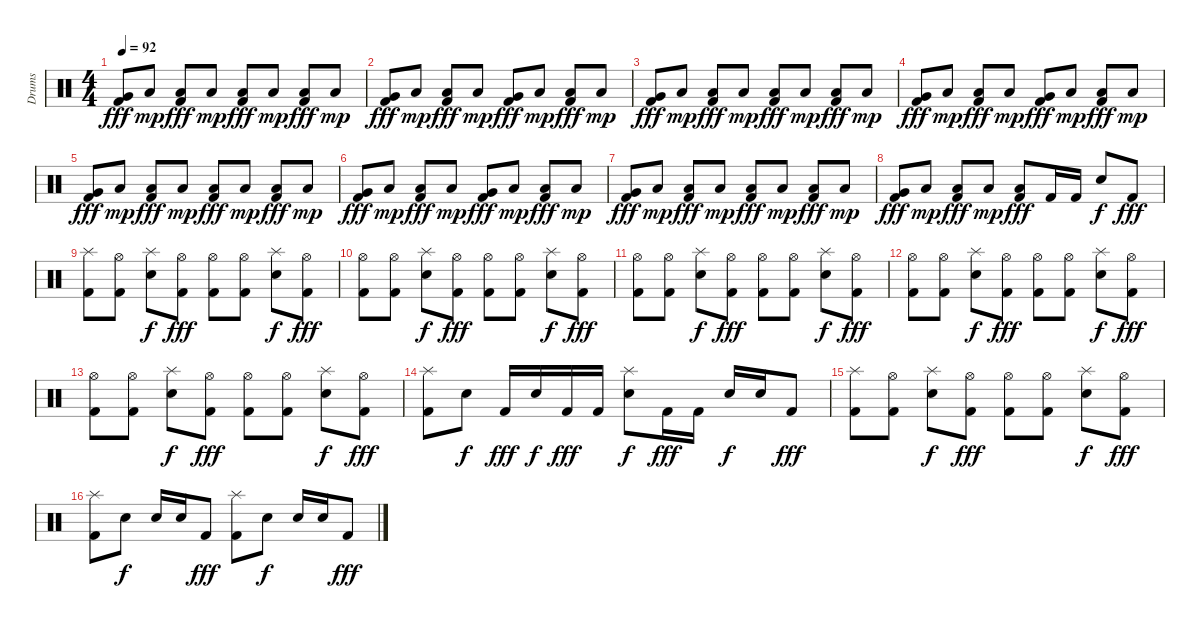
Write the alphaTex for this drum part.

\track ("Drums" "Drums") {instrument percussion}
\staff {score}
\articulation defaults
\ts (4 4)
\tempo 92
\clef neutral
\ks c
("Very Low Tom (hit)" "Kick (hit) 2").8{dy fff} "Low Floor Tom (hit)".8{dy mp} ("Low Floor Tom (hit)" "Kick (hit) 2").8{dy fff} "Low Floor Tom (hit)".8{dy mp} ("Low Floor Tom (hit)" "Kick (hit) 2").8{dy fff} "Low Floor Tom (hit)".8{dy mp} ("Low Floor Tom (hit)" "Kick (hit) 2").8{dy fff} "Low Floor Tom (hit)".8{dy mp} |
("Very Low Tom (hit)" "Kick (hit) 2").8{dy fff} "Low Floor Tom (hit)".8{dy mp} ("Low Floor Tom (hit)" "Kick (hit) 2").8{dy fff} "Low Floor Tom (hit)".8{dy mp} ("Very Low Tom (hit)" "Kick (hit) 2").8{dy fff} "Low Floor Tom (hit)".8{dy mp} ("Low Floor Tom (hit)" "Kick (hit) 2").8{dy fff} "Low Floor Tom (hit)".8{dy mp} |
("Very Low Tom (hit)" "Kick (hit) 2").8{dy fff} "Low Floor Tom (hit)".8{dy mp} ("Low Floor Tom (hit)" "Kick (hit) 2").8{dy fff} "Low Floor Tom (hit)".8{dy mp} ("Low Floor Tom (hit)" "Kick (hit) 2").8{dy fff} "Low Floor Tom (hit)".8{dy mp} ("Low Floor Tom (hit)" "Kick (hit) 2").8{dy fff} "Low Floor Tom (hit)".8{dy mp} |
("Very Low Tom (hit)" "Kick (hit) 2").8{dy fff} "Low Floor Tom (hit)".8{dy mp} ("Low Floor Tom (hit)" "Kick (hit) 2").8{dy fff} "Low Floor Tom (hit)".8{dy mp} ("Very Low Tom (hit)" "Kick (hit) 2").8{dy fff} "Low Floor Tom (hit)".8{dy mp} ("Low Floor Tom (hit)" "Kick (hit) 2").8{dy fff} "Low Floor Tom (hit)".8{dy mp} |
("Very Low Tom (hit)" "Kick (hit) 2").8{dy fff} "Low Floor Tom (hit)".8{dy mp} ("Low Floor Tom (hit)" "Kick (hit) 2").8{dy fff} "Low Floor Tom (hit)".8{dy mp} ("Low Floor Tom (hit)" "Kick (hit) 2").8{dy fff} "Low Floor Tom (hit)".8{dy mp} ("Low Floor Tom (hit)" "Kick (hit) 2").8{dy fff} "Low Floor Tom (hit)".8{dy mp} |
("Very Low Tom (hit)" "Kick (hit) 2").8{dy fff} "Low Floor Tom (hit)".8{dy mp} ("Low Floor Tom (hit)" "Kick (hit) 2").8{dy fff} "Low Floor Tom (hit)".8{dy mp} ("Very Low Tom (hit)" "Kick (hit) 2").8{dy fff} "Low Floor Tom (hit)".8{dy mp} ("Low Floor Tom (hit)" "Kick (hit) 2").8{dy fff} "Low Floor Tom (hit)".8{dy mp} |
("Very Low Tom (hit)" "Kick (hit) 2").8{dy fff} "Low Floor Tom (hit)".8{dy mp} ("Low Floor Tom (hit)" "Kick (hit) 2").8{dy fff} "Low Floor Tom (hit)".8{dy mp} ("Low Floor Tom (hit)" "Kick (hit) 2").8{dy fff} "Low Floor Tom (hit)".8{dy mp} ("Low Floor Tom (hit)" "Kick (hit) 2").8{dy fff} "Low Floor Tom (hit)".8{dy mp} |
("Very Low Tom (hit)" "Kick (hit) 2").8{dy fff} "Low Floor Tom (hit)".8{dy mp} ("Low Floor Tom (hit)" "Kick (hit) 2").8{dy fff} "Low Floor Tom (hit)".8{dy mp} ("Low Floor Tom (hit)" "Kick (hit) 2").8{dy fff} "Kick (hit) 2".16 "Kick (hit) 2".16 "Snare (hit) 2".8{dy f} "Kick (hit) 2".8{dy fff} |
("Splash (hit)" "Kick (hit) 2").8 ("Hi-Hat (open)" "Kick (hit) 2").8 ("Splash (hit)" "Snare (hit) 2").8{dy f} ("Hi-Hat (open)" "Kick (hit) 2").8{dy fff} ("Hi-Hat (open)" "Kick (hit) 2").8 ("Hi-Hat (open)" "Kick (hit) 2").8 ("Splash (hit)" "Snare (hit) 2").8{dy f} ("Hi-Hat (open)" "Kick (hit) 2").8{dy fff} |
("Hi-Hat (open)" "Kick (hit) 2").8 ("Hi-Hat (open)" "Kick (hit) 2").8 ("Splash (hit)" "Snare (hit) 2").8{dy f} ("Hi-Hat (open)" "Kick (hit) 2").8{dy fff} ("Hi-Hat (open)" "Kick (hit) 2").8 ("Hi-Hat (open)" "Kick (hit) 2").8 ("Splash (hit)" "Snare (hit) 2").8{dy f} ("Hi-Hat (open)" "Kick (hit) 2").8{dy fff} |
("Hi-Hat (open)" "Kick (hit) 2").8 ("Hi-Hat (open)" "Kick (hit) 2").8 ("Splash (hit)" "Snare (hit) 2").8{dy f} ("Hi-Hat (open)" "Kick (hit) 2").8{dy fff} ("Hi-Hat (open)" "Kick (hit) 2").8 ("Hi-Hat (open)" "Kick (hit) 2").8 ("Splash (hit)" "Snare (hit) 2").8{dy f} ("Hi-Hat (open)" "Kick (hit) 2").8{dy fff} |
("Hi-Hat (open)" "Kick (hit) 2").8 ("Hi-Hat (open)" "Kick (hit) 2").8 ("Splash (hit)" "Snare (hit) 2").8{dy f} ("Hi-Hat (open)" "Kick (hit) 2").8{dy fff} ("Hi-Hat (open)" "Kick (hit) 2").8 ("Hi-Hat (open)" "Kick (hit) 2").8 ("Splash (hit)" "Snare (hit) 2").8{dy f} ("Hi-Hat (open)" "Kick (hit) 2").8{dy fff} |
("Hi-Hat (open)" "Kick (hit) 2").8 ("Hi-Hat (open)" "Kick (hit) 2").8 ("Splash (hit)" "Snare (hit) 2").8{dy f} ("Hi-Hat (open)" "Kick (hit) 2").8{dy fff} ("Hi-Hat (open)" "Kick (hit) 2").8 ("Hi-Hat (open)" "Kick (hit) 2").8 ("Splash (hit)" "Snare (hit) 2").8{dy f} ("Hi-Hat (open)" "Kick (hit) 2").8{dy fff} |
("Splash (hit)" "Kick (hit) 2").8 "Snare (hit) 2".8{dy f} "Kick (hit) 2".16{dy fff} "Snare (hit) 2".16{dy f} "Kick (hit) 2".16{dy fff} "Kick (hit) 2".16 ("Splash (hit)" "Snare (hit) 2").8{dy f} "Kick (hit) 2".16{dy fff} "Kick (hit) 2".16 "Snare (hit) 2".16{dy f} "Snare (hit) 2".16 "Kick (hit) 2".8{dy fff} |
("Splash (hit)" "Kick (hit) 2").8 ("Hi-Hat (open)" "Kick (hit) 2").8 ("Splash (hit)" "Snare (hit) 2").8{dy f} ("Hi-Hat (open)" "Kick (hit) 2").8{dy fff} ("Hi-Hat (open)" "Kick (hit) 2").8 ("Hi-Hat (open)" "Kick (hit) 2").8 ("Splash (hit)" "Snare (hit) 2").8{dy f} ("Hi-Hat (open)" "Kick (hit) 2").8{dy fff} |
("Splash (hit)" "Kick (hit) 2").8 "Snare (hit) 2".8{dy f} "Snare (hit) 2".16 "Snare (hit) 2".16 "Kick (hit) 2".8{dy fff} ("Splash (hit)" "Kick (hit) 2").8 "Snare (hit) 2".8{dy f} "Snare (hit) 2".16 "Snare (hit) 2".16 "Kick (hit) 2".8{dy fff}
